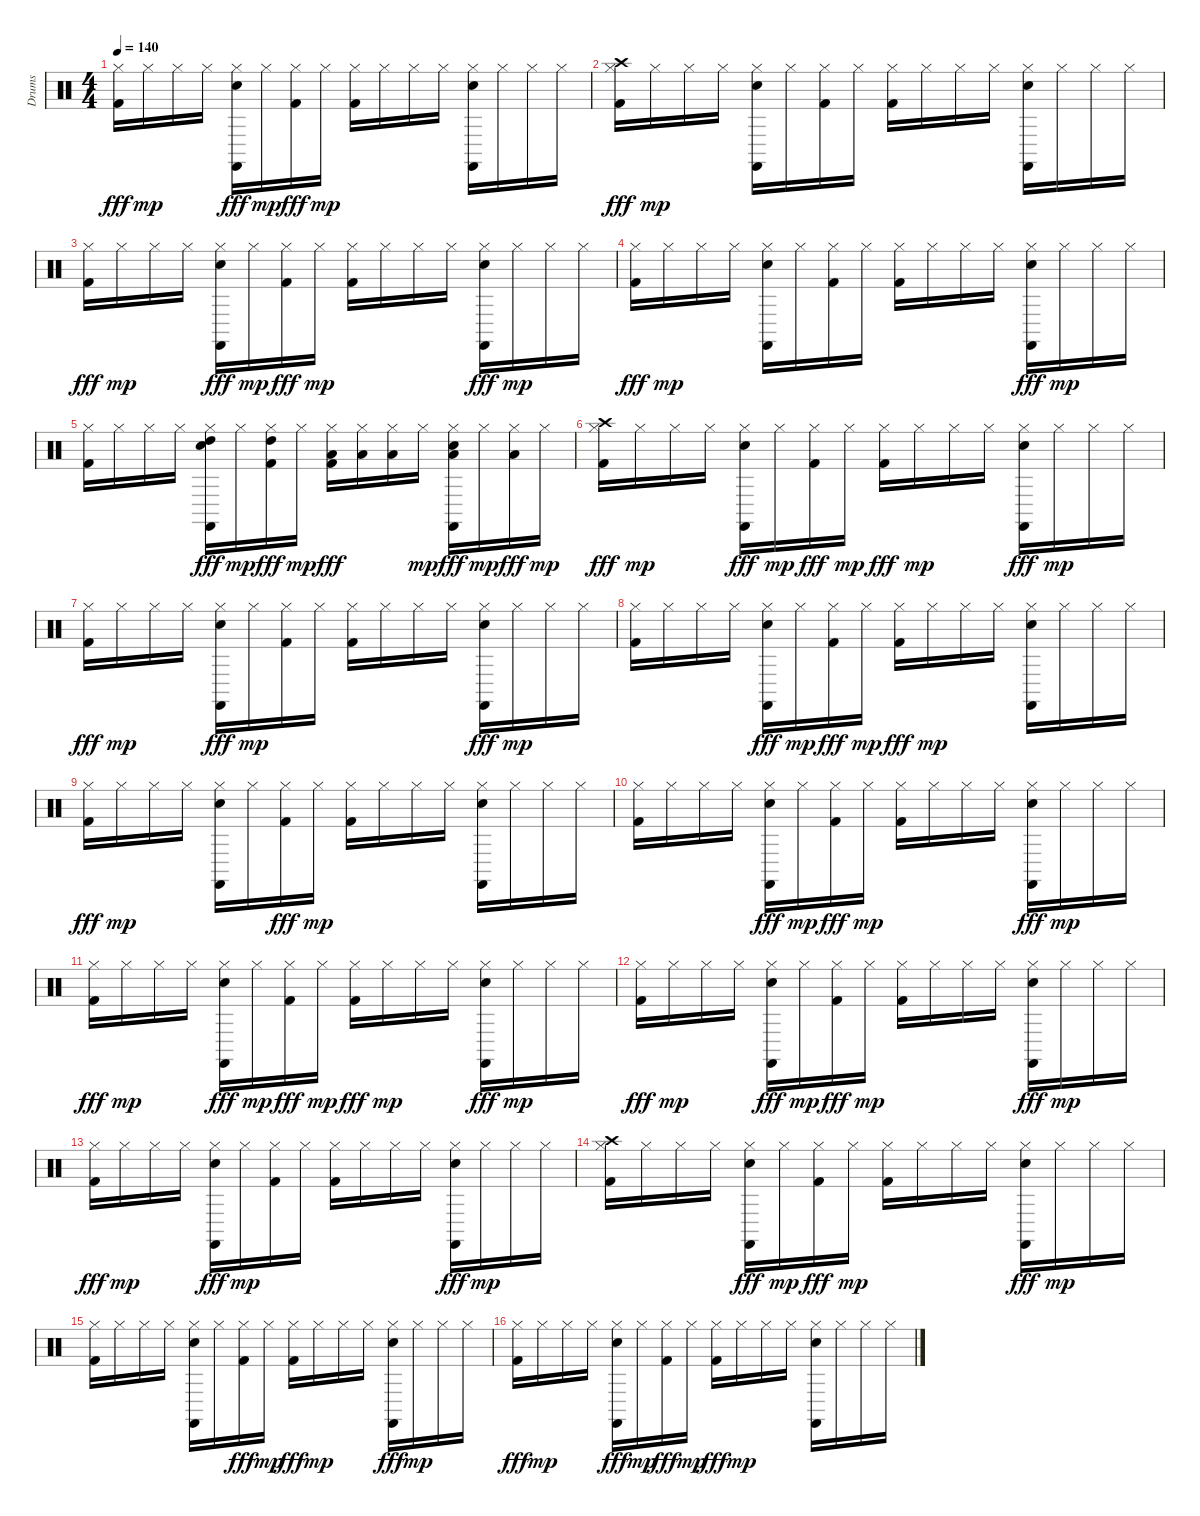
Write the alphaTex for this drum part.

\track ("Drums" "Drums") {instrument percussion}
\staff {score}
\articulation defaults
\ts (4 4)
\tempo 140
\clef neutral
\ks c
("Hi-Hat (closed)" "Kick (hit) 2").16{dy fff} "Hi-Hat (closed)".16{dy mp} "Hi-Hat (closed)".16 "Hi-Hat (closed)".16 ("Hi-Hat (closed)" "Castanets (hit)" "Snare (hit) 2").16{dy fff} "Hi-Hat (closed)".16{dy mp} ("Hi-Hat (closed)" "Kick (hit) 2").16{dy fff} "Hi-Hat (closed)".16{dy mp} ("Kick (hit) 2" "Hi-Hat (closed)").16 "Hi-Hat (closed)".16 "Hi-Hat (closed)".16 "Hi-Hat (closed)".16 ("Castanets (hit)" "Snare (hit) 2" "Hi-Hat (closed)").16 "Hi-Hat (closed)".16 "Hi-Hat (closed)".16 "Hi-Hat (closed)".16 |
("Crash high (hit)" "Hi-Hat (closed)" "Kick (hit) 2").16{dy fff} "Hi-Hat (closed)".16{dy mp} "Hi-Hat (closed)".16 "Hi-Hat (closed)".16 ("Castanets (hit)" "Snare (hit) 2" "Hi-Hat (closed)").16 "Hi-Hat (closed)".16 ("Kick (hit) 2" "Hi-Hat (closed)").16 "Hi-Hat (closed)".16 ("Kick (hit) 2" "Hi-Hat (closed)").16 "Hi-Hat (closed)".16 "Hi-Hat (closed)".16 "Hi-Hat (closed)".16 ("Castanets (hit)" "Snare (hit) 2" "Hi-Hat (closed)").16 "Hi-Hat (closed)".16 "Hi-Hat (closed)".16 "Hi-Hat (closed)".16 |
("Hi-Hat (closed)" "Kick (hit) 2").16{dy fff} "Hi-Hat (closed)".16{dy mp} "Hi-Hat (closed)".16 "Hi-Hat (closed)".16 ("Castanets (hit)" "Hi-Hat (closed)" "Snare (hit) 2").16{dy fff} "Hi-Hat (closed)".16{dy mp} ("Hi-Hat (closed)" "Kick (hit) 2").16{dy fff} "Hi-Hat (closed)".16{dy mp} ("Kick (hit) 2" "Hi-Hat (closed)").16 "Hi-Hat (closed)".16 "Hi-Hat (closed)".16 "Hi-Hat (closed)".16 ("Hi-Hat (closed)" "Snare (hit) 2" "Castanets (hit)").16{dy fff} "Hi-Hat (closed)".16{dy mp} "Hi-Hat (closed)".16 "Hi-Hat (closed)".16 |
("Hi-Hat (closed)" "Kick (hit) 2").16{dy fff} "Hi-Hat (closed)".16{dy mp} "Hi-Hat (closed)".16 "Hi-Hat (closed)".16 ("Snare (hit) 2" "Castanets (hit)" "Hi-Hat (closed)").16 "Hi-Hat (closed)".16 ("Kick (hit) 2" "Hi-Hat (closed)").16 "Hi-Hat (closed)".16 ("Kick (hit) 2" "Hi-Hat (closed)").16 "Hi-Hat (closed)".16 "Hi-Hat (closed)".16 "Hi-Hat (closed)".16 ("Snare (hit) 2" "Hi-Hat (closed)" "Castanets (hit)").16{dy fff} "Hi-Hat (closed)".16{dy mp} "Hi-Hat (closed)".16 "Hi-Hat (closed)".16 |
("Kick (hit) 2" "Hi-Hat (closed)").16 "Hi-Hat (closed)".16 "Hi-Hat (closed)".16 "Hi-Hat (closed)".16 ("Hi-Hat (closed)" "High Tom (hit)" "Snare (hit) 2" "Castanets (hit)").16{dy fff} "Hi-Hat (closed)".16{dy mp} ("High Tom (hit)" "Hi-Hat (closed)" "Kick (hit) 2").16{dy fff} "Hi-Hat (closed)".16{dy mp} ("Hi-Hat (closed)" "Low Tom (hit)" "Kick (hit) 2").16{dy fff} ("Hi-Hat (closed)" "Low Tom (hit)").16 ("Hi-Hat (closed)" "Low Tom (hit)").16 "Hi-Hat (closed)".16{dy mp} ("Castanets (hit)" "Snare (hit) 2" "Hi-Hat (closed)" "Low Floor Tom (hit)").16{dy fff} "Hi-Hat (closed)".16{dy mp} ("Hi-Hat (closed)" "Low Floor Tom (hit)").16{dy fff} "Hi-Hat (closed)".16{dy mp} |
("Kick (hit) 2" "Hi-Hat (closed)" "Crash high (hit)").16{dy fff} "Hi-Hat (closed)".16{dy mp} "Hi-Hat (closed)".16 "Hi-Hat (closed)".16 ("Snare (hit) 2" "Hi-Hat (closed)" "Castanets (hit)").16{dy fff} "Hi-Hat (closed)".16{dy mp} ("Hi-Hat (closed)" "Kick (hit) 2").16{dy fff} "Hi-Hat (closed)".16{dy mp} ("Hi-Hat (closed)" "Kick (hit) 2").16{dy fff} "Hi-Hat (closed)".16{dy mp} "Hi-Hat (closed)".16 "Hi-Hat (closed)".16 ("Snare (hit) 2" "Hi-Hat (closed)" "Castanets (hit)").16{dy fff} "Hi-Hat (closed)".16{dy mp} "Hi-Hat (closed)".16 "Hi-Hat (closed)".16 |
("Hi-Hat (closed)" "Kick (hit) 2").16{dy fff} "Hi-Hat (closed)".16{dy mp} "Hi-Hat (closed)".16 "Hi-Hat (closed)".16 ("Hi-Hat (closed)" "Castanets (hit)" "Snare (hit) 2").16{dy fff} "Hi-Hat (closed)".16{dy mp} ("Kick (hit) 2" "Hi-Hat (closed)").16 "Hi-Hat (closed)".16 ("Kick (hit) 2" "Hi-Hat (closed)").16 "Hi-Hat (closed)".16 "Hi-Hat (closed)".16 "Hi-Hat (closed)".16 ("Snare (hit) 2" "Hi-Hat (closed)" "Castanets (hit)").16{dy fff} "Hi-Hat (closed)".16{dy mp} "Hi-Hat (closed)".16 "Hi-Hat (closed)".16 |
("Kick (hit) 2" "Hi-Hat (closed)").16 "Hi-Hat (closed)".16 "Hi-Hat (closed)".16 "Hi-Hat (closed)".16 ("Hi-Hat (closed)" "Snare (hit) 2" "Castanets (hit)").16{dy fff} "Hi-Hat (closed)".16{dy mp} ("Hi-Hat (closed)" "Kick (hit) 2").16{dy fff} "Hi-Hat (closed)".16{dy mp} ("Hi-Hat (closed)" "Kick (hit) 2").16{dy fff} "Hi-Hat (closed)".16{dy mp} "Hi-Hat (closed)".16 "Hi-Hat (closed)".16 ("Snare (hit) 2" "Castanets (hit)" "Hi-Hat (closed)").16 "Hi-Hat (closed)".16 "Hi-Hat (closed)".16 "Hi-Hat (closed)".16 |
("Hi-Hat (closed)" "Kick (hit) 2").16{dy fff} "Hi-Hat (closed)".16{dy mp} "Hi-Hat (closed)".16 "Hi-Hat (closed)".16 ("Castanets (hit)" "Snare (hit) 2" "Hi-Hat (closed)").16 "Hi-Hat (closed)".16 ("Hi-Hat (closed)" "Kick (hit) 2").16{dy fff} "Hi-Hat (closed)".16{dy mp} ("Kick (hit) 2" "Hi-Hat (closed)").16 "Hi-Hat (closed)".16 "Hi-Hat (closed)".16 "Hi-Hat (closed)".16 ("Castanets (hit)" "Snare (hit) 2" "Hi-Hat (closed)").16 "Hi-Hat (closed)".16 "Hi-Hat (closed)".16 "Hi-Hat (closed)".16 |
("Kick (hit) 2" "Hi-Hat (closed)").16 "Hi-Hat (closed)".16 "Hi-Hat (closed)".16 "Hi-Hat (closed)".16 ("Hi-Hat (closed)" "Snare (hit) 2" "Castanets (hit)").16{dy fff} "Hi-Hat (closed)".16{dy mp} ("Hi-Hat (closed)" "Kick (hit) 2").16{dy fff} "Hi-Hat (closed)".16{dy mp} ("Kick (hit) 2" "Hi-Hat (closed)").16 "Hi-Hat (closed)".16 "Hi-Hat (closed)".16 "Hi-Hat (closed)".16 ("Hi-Hat (closed)" "Snare (hit) 2" "Castanets (hit)").16{dy fff} "Hi-Hat (closed)".16{dy mp} "Hi-Hat (closed)".16 "Hi-Hat (closed)".16 |
("Hi-Hat (closed)" "Kick (hit) 2").16{dy fff} "Hi-Hat (closed)".16{dy mp} "Hi-Hat (closed)".16 "Hi-Hat (closed)".16 ("Castanets (hit)" "Hi-Hat (closed)" "Snare (hit) 2").16{dy fff} "Hi-Hat (closed)".16{dy mp} ("Hi-Hat (closed)" "Kick (hit) 2").16{dy fff} "Hi-Hat (closed)".16{dy mp} ("Hi-Hat (closed)" "Kick (hit) 2").16{dy fff} "Hi-Hat (closed)".16{dy mp} "Hi-Hat (closed)".16 "Hi-Hat (closed)".16 ("Hi-Hat (closed)" "Castanets (hit)" "Snare (hit) 2").16{dy fff} "Hi-Hat (closed)".16{dy mp} "Hi-Hat (closed)".16 "Hi-Hat (closed)".16 |
("Hi-Hat (closed)" "Kick (hit) 2").16{dy fff} "Hi-Hat (closed)".16{dy mp} "Hi-Hat (closed)".16 "Hi-Hat (closed)".16 ("Hi-Hat (closed)" "Snare (hit) 2" "Castanets (hit)").16{dy fff} "Hi-Hat (closed)".16{dy mp} ("Hi-Hat (closed)" "Kick (hit) 2").16{dy fff} "Hi-Hat (closed)".16{dy mp} ("Kick (hit) 2" "Hi-Hat (closed)").16 "Hi-Hat (closed)".16 "Hi-Hat (closed)".16 "Hi-Hat (closed)".16 ("Snare (hit) 2" "Hi-Hat (closed)" "Castanets (hit)").16{dy fff} "Hi-Hat (closed)".16{dy mp} "Hi-Hat (closed)".16 "Hi-Hat (closed)".16 |
("Hi-Hat (closed)" "Kick (hit) 2").16{dy fff} "Hi-Hat (closed)".16{dy mp} "Hi-Hat (closed)".16 "Hi-Hat (closed)".16 ("Hi-Hat (closed)" "Castanets (hit)" "Snare (hit) 2").16{dy fff} "Hi-Hat (closed)".16{dy mp} ("Kick (hit) 2" "Hi-Hat (closed)").16 "Hi-Hat (closed)".16 ("Kick (hit) 2" "Hi-Hat (closed)").16 "Hi-Hat (closed)".16 "Hi-Hat (closed)".16 "Hi-Hat (closed)".16 ("Hi-Hat (closed)" "Snare (hit) 2" "Castanets (hit)").16{dy fff} "Hi-Hat (closed)".16{dy mp} "Hi-Hat (closed)".16 "Hi-Hat (closed)".16 |
("Crash high (hit)" "Kick (hit) 2" "Hi-Hat (closed)").16 "Hi-Hat (closed)".16 "Hi-Hat (closed)".16 "Hi-Hat (closed)".16 ("Snare (hit) 2" "Hi-Hat (closed)" "Castanets (hit)").16{dy fff} "Hi-Hat (closed)".16{dy mp} ("Hi-Hat (closed)" "Kick (hit) 2").16{dy fff} "Hi-Hat (closed)".16{dy mp} ("Kick (hit) 2" "Hi-Hat (closed)").16 "Hi-Hat (closed)".16 "Hi-Hat (closed)".16 "Hi-Hat (closed)".16 ("Castanets (hit)" "Hi-Hat (closed)" "Snare (hit) 2").16{dy fff} "Hi-Hat (closed)".16{dy mp} "Hi-Hat (closed)".16 "Hi-Hat (closed)".16 |
("Kick (hit) 2" "Hi-Hat (closed)").16 "Hi-Hat (closed)".16 "Hi-Hat (closed)".16 "Hi-Hat (closed)".16 ("Snare (hit) 2" "Castanets (hit)" "Hi-Hat (closed)").16 "Hi-Hat (closed)".16 ("Hi-Hat (closed)" "Kick (hit) 2").16{dy fff} "Hi-Hat (closed)".16{dy mp} ("Hi-Hat (closed)" "Kick (hit) 2").16{dy fff} "Hi-Hat (closed)".16{dy mp} "Hi-Hat (closed)".16 "Hi-Hat (closed)".16 ("Castanets (hit)" "Hi-Hat (closed)" "Snare (hit) 2").16{dy fff} "Hi-Hat (closed)".16{dy mp} "Hi-Hat (closed)".16 "Hi-Hat (closed)".16 |
("Hi-Hat (closed)" "Kick (hit) 2").16{dy fff} "Hi-Hat (closed)".16{dy mp} "Hi-Hat (closed)".16 "Hi-Hat (closed)".16 ("Castanets (hit)" "Hi-Hat (closed)" "Snare (hit) 2").16{dy fff} "Hi-Hat (closed)".16{dy mp} ("Hi-Hat (closed)" "Kick (hit) 2").16{dy fff} "Hi-Hat (closed)".16{dy mp} ("Hi-Hat (closed)" "Kick (hit) 2").16{dy fff} "Hi-Hat (closed)".16{dy mp} "Hi-Hat (closed)".16 "Hi-Hat (closed)".16 ("Castanets (hit)" "Snare (hit) 2" "Hi-Hat (closed)").16 "Hi-Hat (closed)".16 "Hi-Hat (closed)".16 "Hi-Hat (closed)".16
